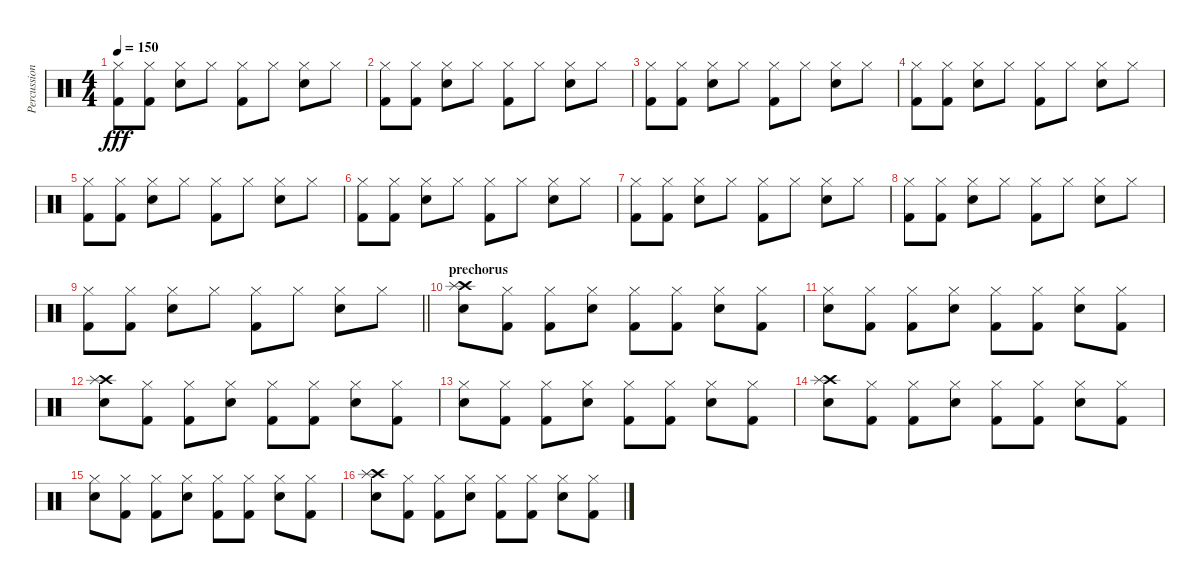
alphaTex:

\track ("Percussion" "Percussion") {instrument percussion}
\staff {score}
\articulation defaults
\ts (4 4)
\tempo 150
\clef neutral
\ks c
("Hi-Hat (closed)" "Kick (hit) 2").8{dy fff} ("Hi-Hat (closed)" "Kick (hit) 2").8 ("Hi-Hat (closed)" "Electric Snare (hit)").8 "Hi-Hat (closed)".8 ("Hi-Hat (closed)" "Kick (hit) 2").8 "Hi-Hat (closed)".8 ("Hi-Hat (closed)" "Electric Snare (hit)").8 "Hi-Hat (closed)".8 |
("Hi-Hat (closed)" "Kick (hit) 2").8 ("Hi-Hat (closed)" "Kick (hit) 2").8 ("Hi-Hat (closed)" "Electric Snare (hit)").8 "Hi-Hat (closed)".8 ("Hi-Hat (closed)" "Kick (hit) 2").8 "Hi-Hat (closed)".8 ("Hi-Hat (closed)" "Electric Snare (hit)").8 "Hi-Hat (closed)".8 |
("Hi-Hat (closed)" "Kick (hit) 2").8 ("Hi-Hat (closed)" "Kick (hit) 2").8 ("Hi-Hat (closed)" "Electric Snare (hit)").8 "Hi-Hat (closed)".8 ("Hi-Hat (closed)" "Kick (hit) 2").8 "Hi-Hat (closed)".8 ("Hi-Hat (closed)" "Electric Snare (hit)").8 "Hi-Hat (closed)".8 |
("Hi-Hat (closed)" "Kick (hit) 2").8 ("Hi-Hat (closed)" "Kick (hit) 2").8 ("Hi-Hat (closed)" "Electric Snare (hit)").8 "Hi-Hat (closed)".8 ("Hi-Hat (closed)" "Kick (hit) 2").8 "Hi-Hat (closed)".8 ("Hi-Hat (closed)" "Electric Snare (hit)").8 "Hi-Hat (closed)".8 |
("Hi-Hat (closed)" "Kick (hit) 2").8 ("Hi-Hat (closed)" "Kick (hit) 2").8 ("Hi-Hat (closed)" "Electric Snare (hit)").8 "Hi-Hat (closed)".8 ("Hi-Hat (closed)" "Kick (hit) 2").8 "Hi-Hat (closed)".8 ("Hi-Hat (closed)" "Electric Snare (hit)").8 "Hi-Hat (closed)".8 |
("Hi-Hat (closed)" "Kick (hit) 2").8 ("Hi-Hat (closed)" "Kick (hit) 2").8 ("Hi-Hat (closed)" "Electric Snare (hit)").8 "Hi-Hat (closed)".8 ("Hi-Hat (closed)" "Kick (hit) 2").8 "Hi-Hat (closed)".8 ("Hi-Hat (closed)" "Electric Snare (hit)").8 "Hi-Hat (closed)".8 |
("Hi-Hat (closed)" "Kick (hit) 2").8 ("Hi-Hat (closed)" "Kick (hit) 2").8 ("Hi-Hat (closed)" "Electric Snare (hit)").8 "Hi-Hat (closed)".8 ("Hi-Hat (closed)" "Kick (hit) 2").8 "Hi-Hat (closed)".8 ("Hi-Hat (closed)" "Electric Snare (hit)").8 "Hi-Hat (closed)".8 |
("Hi-Hat (closed)" "Kick (hit) 2").8 ("Hi-Hat (closed)" "Kick (hit) 2").8 ("Hi-Hat (closed)" "Electric Snare (hit)").8 "Hi-Hat (closed)".8 ("Hi-Hat (closed)" "Kick (hit) 2").8 "Hi-Hat (closed)".8 ("Hi-Hat (closed)" "Electric Snare (hit)").8 "Hi-Hat (closed)".8 |
\barLineRight lightlight
("Hi-Hat (closed)" "Kick (hit) 2").8 ("Hi-Hat (closed)" "Kick (hit) 2").8 ("Hi-Hat (closed)" "Electric Snare (hit)").8 "Hi-Hat (closed)".8 ("Hi-Hat (closed)" "Kick (hit) 2").8 "Hi-Hat (closed)".8 ("Hi-Hat (closed)" "Electric Snare (hit)").8 "Hi-Hat (closed)".8 |
\section ("" "prechorus")
("Crash high (hit)" "Electric Snare (hit)" "Splash (hit)").8 ("Hi-Hat (closed)" "Kick (hit) 2").8 ("Hi-Hat (closed)" "Kick (hit) 2").8 ("Hi-Hat (closed)" "Electric Snare (hit)").8 ("Hi-Hat (closed)" "Kick (hit) 2").8 ("Hi-Hat (closed)" "Kick (hit) 2").8 ("Hi-Hat (closed)" "Electric Snare (hit)").8 ("Hi-Hat (closed)" "Kick (hit) 2").8 |
("Hi-Hat (closed)" "Electric Snare (hit)").8 ("Hi-Hat (closed)" "Kick (hit) 2").8 ("Hi-Hat (closed)" "Kick (hit) 2").8 ("Hi-Hat (closed)" "Electric Snare (hit)").8 ("Hi-Hat (closed)" "Kick (hit) 2").8 ("Hi-Hat (closed)" "Kick (hit) 2").8 ("Hi-Hat (closed)" "Electric Snare (hit)").8 ("Hi-Hat (closed)" "Kick (hit) 2").8 |
("Crash high (hit)" "Electric Snare (hit)" "Splash (hit)").8 ("Hi-Hat (closed)" "Kick (hit) 2").8 ("Hi-Hat (closed)" "Kick (hit) 2").8 ("Hi-Hat (closed)" "Electric Snare (hit)").8 ("Hi-Hat (closed)" "Kick (hit) 2").8 ("Hi-Hat (closed)" "Kick (hit) 2").8 ("Hi-Hat (closed)" "Electric Snare (hit)").8 ("Hi-Hat (closed)" "Kick (hit) 2").8 |
("Hi-Hat (closed)" "Electric Snare (hit)").8 ("Hi-Hat (closed)" "Kick (hit) 2").8 ("Hi-Hat (closed)" "Kick (hit) 2").8 ("Hi-Hat (closed)" "Electric Snare (hit)").8 ("Hi-Hat (closed)" "Kick (hit) 2").8 ("Hi-Hat (closed)" "Kick (hit) 2").8 ("Hi-Hat (closed)" "Electric Snare (hit)").8 ("Hi-Hat (closed)" "Kick (hit) 2").8 |
("Crash high (hit)" "Electric Snare (hit)" "Splash (hit)").8 ("Hi-Hat (closed)" "Kick (hit) 2").8 ("Hi-Hat (closed)" "Kick (hit) 2").8 ("Hi-Hat (closed)" "Electric Snare (hit)").8 ("Hi-Hat (closed)" "Kick (hit) 2").8 ("Hi-Hat (closed)" "Kick (hit) 2").8 ("Hi-Hat (closed)" "Electric Snare (hit)").8 ("Hi-Hat (closed)" "Kick (hit) 2").8 |
("Hi-Hat (closed)" "Electric Snare (hit)").8 ("Hi-Hat (closed)" "Kick (hit) 2").8 ("Hi-Hat (closed)" "Kick (hit) 2").8 ("Hi-Hat (closed)" "Electric Snare (hit)").8 ("Hi-Hat (closed)" "Kick (hit) 2").8 ("Hi-Hat (closed)" "Kick (hit) 2").8 ("Hi-Hat (closed)" "Electric Snare (hit)").8 ("Hi-Hat (closed)" "Kick (hit) 2").8 |
("Crash high (hit)" "Electric Snare (hit)" "Splash (hit)").8 ("Hi-Hat (closed)" "Kick (hit) 2").8 ("Hi-Hat (closed)" "Kick (hit) 2").8 ("Hi-Hat (closed)" "Electric Snare (hit)").8 ("Hi-Hat (closed)" "Kick (hit) 2").8 ("Hi-Hat (closed)" "Kick (hit) 2").8 ("Hi-Hat (closed)" "Electric Snare (hit)").8 ("Hi-Hat (closed)" "Kick (hit) 2").8
